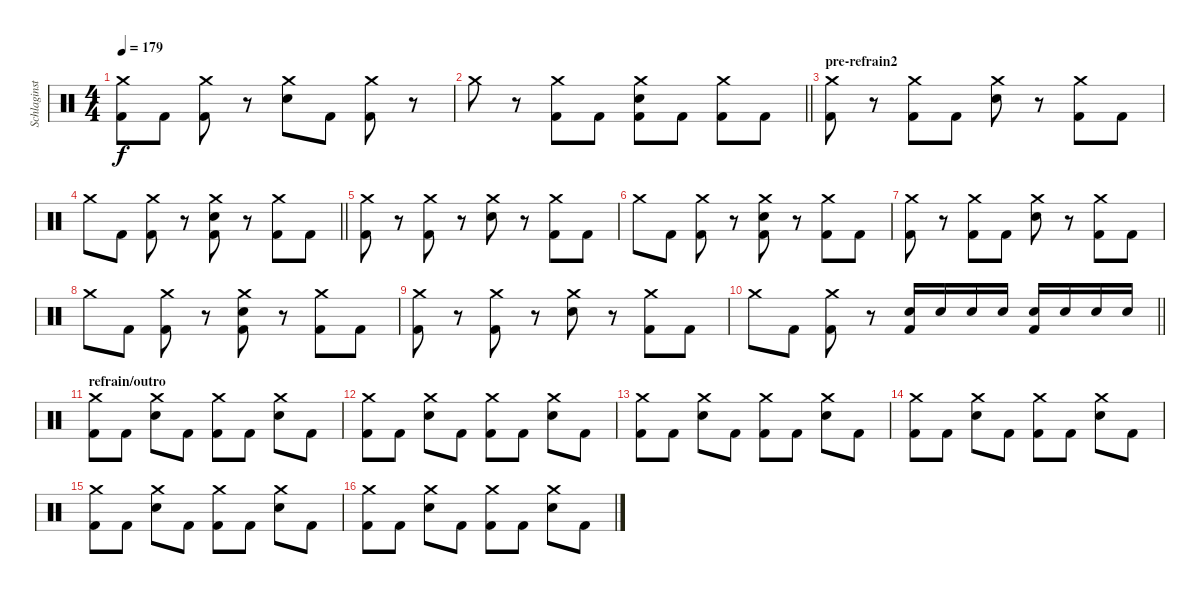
\track ("Schlaginstrumente - Auswahl" "Schlaginst") {instrument percussion}
\staff {score}
\articulation defaults
\ts (4 4)
\tempo 179
\clef neutral
\ks c
("Crash medium (hit)" "Kick (hit) 2").8{dy f} "Kick (hit) 2".8 ("Crash medium (hit)" "Kick (hit) 2").8 r.8 ("Crash medium (hit)" "Electric Snare (hit)").8 "Kick (hit) 2".8 ("Crash medium (hit)" "Kick (hit) 2").8 r.8 |
\barLineRight lightlight "Crash medium (hit)".8
r.8 ("Crash medium (hit)" "Kick (hit) 2").8 "Kick (hit) 2".8 ("Crash medium (hit)" "Electric Snare (hit)" "Kick (hit) 2").8 "Kick (hit) 2".8 ("Crash medium (hit)" "Kick (hit) 2").8 "Kick (hit) 2".8 |
\section ("" "pre-refrain2")
("Crash medium (hit)" "Kick (hit) 2").8 r.8 ("Crash medium (hit)" "Kick (hit) 2").8 "Kick (hit) 2".8 ("Crash medium (hit)" "Electric Snare (hit)").8 r.8 ("Crash medium (hit)" "Kick (hit) 2").8 "Kick (hit) 2".8 |
\barLineRight lightlight "Crash medium (hit)".8 "Kick (hit) 2".8
("Crash medium (hit)" "Kick (hit) 2").8 r.8 ("Crash medium (hit)" "Electric Snare (hit)" "Kick (hit) 2").8 r.8 ("Crash medium (hit)" "Kick (hit) 2").8 "Kick (hit) 2".8 |
\section ("" "")
("Crash medium (hit)" "Kick (hit) 2").8 r.8 ("Crash medium (hit)" "Kick (hit) 2").8 r.8 ("Crash medium (hit)" "Electric Snare (hit)").8 r.8 ("Crash medium (hit)" "Kick (hit) 2").8 "Kick (hit) 2".8 |
"Crash medium (hit)".8 "Kick (hit) 2".8 ("Crash medium (hit)" "Kick (hit) 2").8 r.8 ("Crash medium (hit)" "Electric Snare (hit)" "Kick (hit) 2").8 r.8 ("Crash medium (hit)" "Kick (hit) 2").8 "Kick (hit) 2".8 |
("Crash medium (hit)" "Kick (hit) 2").8 r.8 ("Crash medium (hit)" "Kick (hit) 2").8 "Kick (hit) 2".8 ("Crash medium (hit)" "Electric Snare (hit)").8 r.8 ("Crash medium (hit)" "Kick (hit) 2").8 "Kick (hit) 2".8 |
"Crash medium (hit)".8 "Kick (hit) 2".8 ("Crash medium (hit)" "Kick (hit) 2").8 r.8 ("Crash medium (hit)" "Electric Snare (hit)" "Kick (hit) 2").8 r.8 ("Crash medium (hit)" "Kick (hit) 2").8 "Kick (hit) 2".8 |
("Crash medium (hit)" "Kick (hit) 2").8 r.8 ("Crash medium (hit)" "Kick (hit) 2").8 r.8 ("Crash medium (hit)" "Electric Snare (hit)").8 r.8 ("Crash medium (hit)" "Kick (hit) 2").8 "Kick (hit) 2".8 |
\barLineRight lightlight "Crash medium (hit)".8 "Kick (hit) 2".8
("Crash medium (hit)" "Kick (hit) 2").8 r.8 ("Electric Snare (hit)" "Kick (hit) 2").16 "Electric Snare (hit)".16 "Electric Snare (hit)".16 "Electric Snare (hit)".16 ("Electric Snare (hit)" "Kick (hit) 2").16 "Electric Snare (hit)".16 "Electric Snare (hit)".16 "Electric Snare (hit)".16 |
\section ("" "refrain/outro")
("Crash medium (hit)" "Kick (hit) 2").8 "Kick (hit) 2".8 ("Crash medium (hit)" "Electric Snare (hit)").8 "Kick (hit) 2".8 ("Crash medium (hit)" "Kick (hit) 2").8 "Kick (hit) 2".8 ("Crash medium (hit)" "Electric Snare (hit)").8 "Kick (hit) 2".8 |
("Crash medium (hit)" "Kick (hit) 2").8 "Kick (hit) 2".8 ("Crash medium (hit)" "Electric Snare (hit)").8 "Kick (hit) 2".8 ("Crash medium (hit)" "Kick (hit) 2").8 "Kick (hit) 2".8 ("Crash medium (hit)" "Electric Snare (hit)").8 "Kick (hit) 2".8 |
("Crash medium (hit)" "Kick (hit) 2").8 "Kick (hit) 2".8 ("Crash medium (hit)" "Electric Snare (hit)").8 "Kick (hit) 2".8 ("Crash medium (hit)" "Kick (hit) 2").8 "Kick (hit) 2".8 ("Crash medium (hit)" "Electric Snare (hit)").8 "Kick (hit) 2".8 |
("Crash medium (hit)" "Kick (hit) 2").8 "Kick (hit) 2".8 ("Crash medium (hit)" "Electric Snare (hit)").8 "Kick (hit) 2".8 ("Crash medium (hit)" "Kick (hit) 2").8 "Kick (hit) 2".8 ("Crash medium (hit)" "Electric Snare (hit)").8 "Kick (hit) 2".8 |
("Crash medium (hit)" "Kick (hit) 2").8 "Kick (hit) 2".8 ("Crash medium (hit)" "Electric Snare (hit)").8 "Kick (hit) 2".8 ("Crash medium (hit)" "Kick (hit) 2").8 "Kick (hit) 2".8 ("Crash medium (hit)" "Electric Snare (hit)").8 "Kick (hit) 2".8 |
("Crash medium (hit)" "Kick (hit) 2").8 "Kick (hit) 2".8 ("Crash medium (hit)" "Electric Snare (hit)").8 "Kick (hit) 2".8 ("Crash medium (hit)" "Kick (hit) 2").8 "Kick (hit) 2".8 ("Crash medium (hit)" "Electric Snare (hit)").8 "Kick (hit) 2".8
